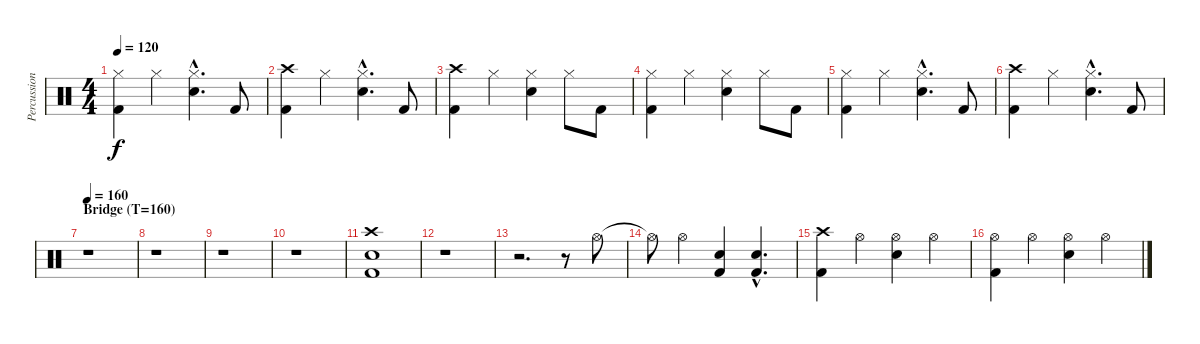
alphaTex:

\track ("Percussion" "Percussion") {instrument percussion}
\staff {score}
\articulation defaults
\ts (4 4)
\tempo 120
\clef neutral
\ks c
("Hi-Hat (closed)" "Kick (hit) 2").4{dy f} "Hi-Hat (closed)".4 ("Hi-Hat (closed)"{hac} "Electric Snare (hit)"{hac}).4{d} "Kick (hit) 2".8 |
("Crash high (hit)" "Kick (hit) 2").4 "Hi-Hat (closed)".4 ("Hi-Hat (closed)"{hac} "Electric Snare (hit)"{hac}).4{d} "Kick (hit) 2".8 |
("Crash high (hit)" "Kick (hit) 2").4 "Hi-Hat (closed)".4 ("Hi-Hat (closed)" "Electric Snare (hit)").4 "Hi-Hat (closed)".8 "Kick (hit) 2".8 |
("Hi-Hat (closed)" "Kick (hit) 2").4 "Hi-Hat (closed)".4 ("Hi-Hat (closed)" "Electric Snare (hit)").4 "Hi-Hat (closed)".8 "Kick (hit) 2".8 |
("Hi-Hat (closed)" "Kick (hit) 2").4 "Hi-Hat (closed)".4 ("Hi-Hat (closed)"{hac} "Electric Snare (hit)"{hac}).4{d} "Kick (hit) 2".8 |
("Crash high (hit)" "Kick (hit) 2").4 "Hi-Hat (closed)".4 ("Hi-Hat (closed)"{hac} "Electric Snare (hit)"{hac}).4{d} "Kick (hit) 2".8 |
\section ("" "Bridge (T=160)")
\tempo 160
r.1 |
r.1 |
r.1 |
r.1 |
("Crash high (hit)" "Kick (hit) 2" "Electric Snare (hit)").1 |
r.1 |
r.2{d} r.8 "Hi-Hat (open)".8 |
"Hi-Hat (open)"{t}.8 "Hi-Hat (open)".4 ("Electric Snare (hit)" "Kick (hit) 2").4 ("Electric Snare (hit)"{hac} "Kick (hit) 2"{hac}).4{d} |
("Crash high (hit)" "Kick (hit) 2").4 "Hi-Hat (open)".4 ("Hi-Hat (open)" "Electric Snare (hit)").4 "Hi-Hat (open)".4 |
("Hi-Hat (open)" "Kick (hit) 2").4 "Hi-Hat (open)".4 ("Hi-Hat (open)" "Electric Snare (hit)").4 "Hi-Hat (open)".4
